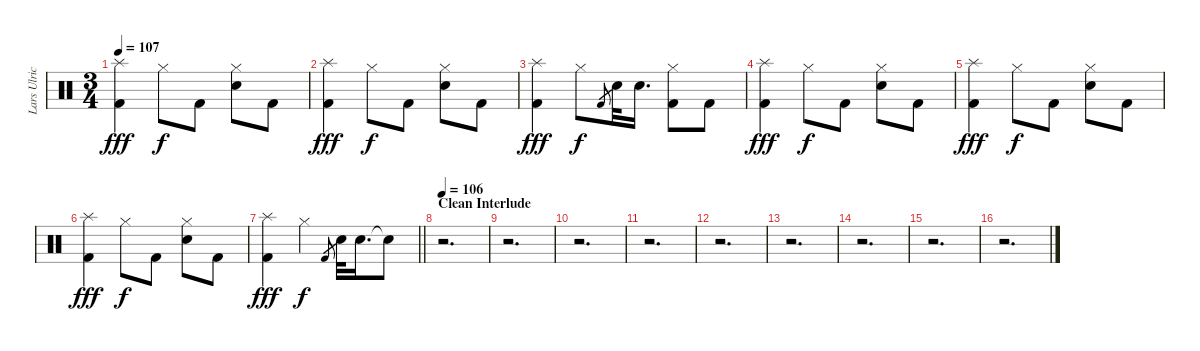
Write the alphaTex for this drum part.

\track ("Lars Ulrich" "Lars Ulric") {instrument percussion}
\staff {score}
\articulation defaults
\ts (3 4)
\tempo 107
\clef neutral
\ks c
("Splash (hit)" "Kick (hit) 2").4{dy fff} "Hi-Hat (closed)".8{dy f} "Kick (hit) 2".8 ("Hi-Hat (closed)" "Electric Snare (hit)").8 "Kick (hit) 2".8 |
("Splash (hit)" "Kick (hit) 2").4{dy fff} "Hi-Hat (closed)".8{dy f} "Kick (hit) 2".8 ("Hi-Hat (closed)" "Electric Snare (hit)").8 "Kick (hit) 2".8 |
("Splash (hit)" "Kick (hit) 2").4{dy fff} "Hi-Hat (closed)".8{dy f} "Kick (hit) 2".8{gr} "Electric Snare (hit)".32 "Electric Snare (hit)".16{d} ("Hi-Hat (closed)" "Kick (hit) 2").8 "Kick (hit) 2".8 |
("Splash (hit)" "Kick (hit) 2").4{dy fff} "Hi-Hat (closed)".8{dy f} "Kick (hit) 2".8 ("Hi-Hat (closed)" "Electric Snare (hit)").8 "Kick (hit) 2".8 |
("Splash (hit)" "Kick (hit) 2").4{dy fff} "Hi-Hat (closed)".8{dy f} "Kick (hit) 2".8 ("Hi-Hat (closed)" "Electric Snare (hit)").8 "Kick (hit) 2".8 |
("Splash (hit)" "Kick (hit) 2").4{dy fff} "Hi-Hat (closed)".8{dy f} "Kick (hit) 2".8 ("Hi-Hat (closed)" "Electric Snare (hit)").8 "Kick (hit) 2".8 |
\barLineRight lightlight
("Splash (hit)" "Kick (hit) 2").4{dy fff} "Hi-Hat (closed)".4{dy f} "Kick (hit) 2".8{gr} "Electric Snare (hit)".32 "Electric Snare (hit)".16{d} "Snare (hit)"{t}.8 |
\section ("" "Clean Interlude")
\tempo 106
r.2{d} |
r.2{d} |
r.2{d} |
r.2{d} |
r.2{d} |
r.2{d} |
r.2{d} |
r.2{d} |
r.2{d}
